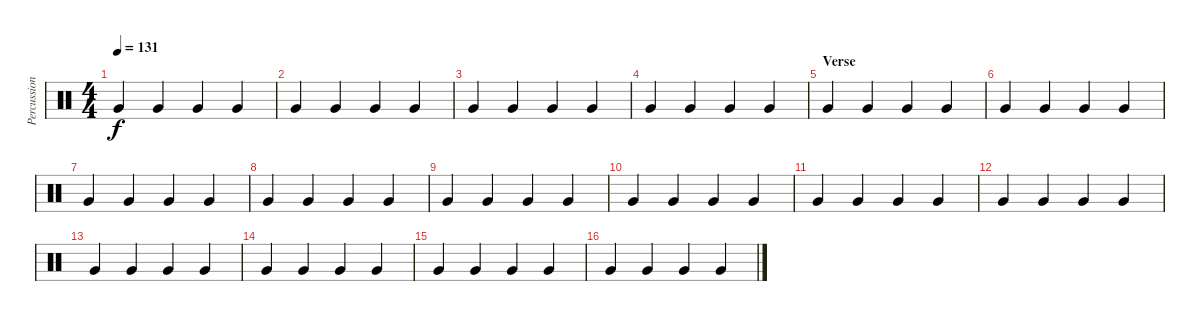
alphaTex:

\track ("Percussion" "Percussion") {instrument percussion}
\staff {score}
\articulation defaults
\ts (4 4)
\tempo 131
\clef neutral
\ks c "Very Low Tom (hit)".4{dy f} "Very Low Tom (hit)".4 "Very Low Tom (hit)".4 "Very Low Tom (hit)".4
|
"Very Low Tom (hit)".4 "Very Low Tom (hit)".4 "Very Low Tom (hit)".4 "Very Low Tom (hit)".4 |
"Very Low Tom (hit)".4 "Very Low Tom (hit)".4 "Very Low Tom (hit)".4 "Very Low Tom (hit)".4 |
"Very Low Tom (hit)".4 "Very Low Tom (hit)".4 "Very Low Tom (hit)".4 "Very Low Tom (hit)".4 |
\section ("" "Verse")
"Very Low Tom (hit)".4 "Very Low Tom (hit)".4 "Very Low Tom (hit)".4 "Very Low Tom (hit)".4 |
"Very Low Tom (hit)".4 "Very Low Tom (hit)".4 "Very Low Tom (hit)".4 "Very Low Tom (hit)".4 |
"Very Low Tom (hit)".4 "Very Low Tom (hit)".4 "Very Low Tom (hit)".4 "Very Low Tom (hit)".4 |
"Very Low Tom (hit)".4 "Very Low Tom (hit)".4 "Very Low Tom (hit)".4 "Very Low Tom (hit)".4 |
"Very Low Tom (hit)".4 "Very Low Tom (hit)".4 "Very Low Tom (hit)".4 "Very Low Tom (hit)".4 |
"Very Low Tom (hit)".4 "Very Low Tom (hit)".4 "Very Low Tom (hit)".4 "Very Low Tom (hit)".4 |
"Very Low Tom (hit)".4 "Very Low Tom (hit)".4 "Very Low Tom (hit)".4 "Very Low Tom (hit)".4 |
"Very Low Tom (hit)".4 "Very Low Tom (hit)".4 "Very Low Tom (hit)".4 "Very Low Tom (hit)".4 |
"Very Low Tom (hit)".4 "Very Low Tom (hit)".4 "Very Low Tom (hit)".4 "Very Low Tom (hit)".4 |
"Very Low Tom (hit)".4 "Very Low Tom (hit)".4 "Very Low Tom (hit)".4 "Very Low Tom (hit)".4 |
"Very Low Tom (hit)".4 "Very Low Tom (hit)".4 "Very Low Tom (hit)".4 "Very Low Tom (hit)".4 |
"Very Low Tom (hit)".4 "Very Low Tom (hit)".4 "Very Low Tom (hit)".4 "Very Low Tom (hit)".4
